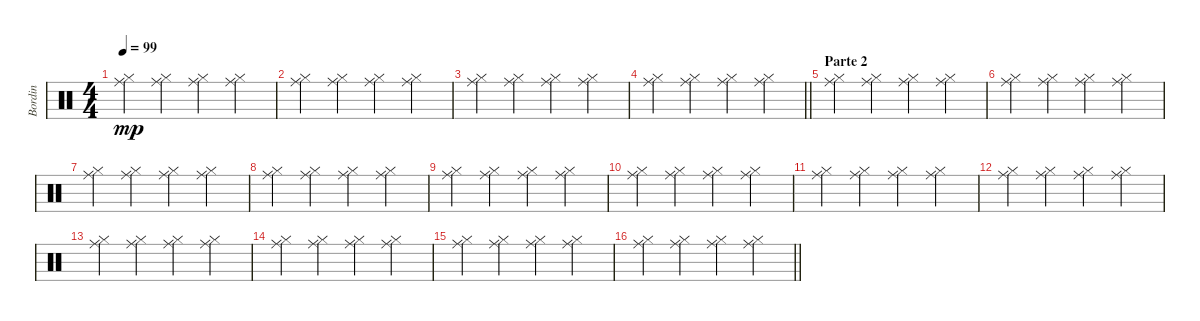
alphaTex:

\track ("Bordin" "Bordin") {instrument percussion}
\staff {score}
\articulation defaults
\ts (4 4)
\tempo 99
\clef neutral
\ks c
("Ride (middle)" "Hi-Hat (closed)").4{dy mp} ("Ride (middle)" "Hi-Hat (closed)").4 ("Ride (middle)" "Hi-Hat (closed)").4 ("Ride (middle)" "Hi-Hat (closed)").4 |
("Ride (middle)" "Hi-Hat (closed)").4 ("Ride (middle)" "Hi-Hat (closed)").4 ("Ride (middle)" "Hi-Hat (closed)").4 ("Ride (middle)" "Hi-Hat (closed)").4 |
("Ride (middle)" "Hi-Hat (closed)").4 ("Ride (middle)" "Hi-Hat (closed)").4 ("Ride (middle)" "Hi-Hat (closed)").4 ("Ride (middle)" "Hi-Hat (closed)").4 |
\barLineRight lightlight
("Ride (middle)" "Hi-Hat (closed)").4 ("Ride (middle)" "Hi-Hat (closed)").4 ("Ride (middle)" "Hi-Hat (closed)").4 ("Ride (middle)" "Hi-Hat (closed)").4 |
\section ("" "Parte 2")
("Ride (middle)" "Hi-Hat (closed)").4 ("Ride (middle)" "Hi-Hat (closed)").4 ("Ride (middle)" "Hi-Hat (closed)").4 ("Ride (middle)" "Hi-Hat (closed)").4 |
("Ride (middle)" "Hi-Hat (closed)").4 ("Ride (middle)" "Hi-Hat (closed)").4 ("Ride (middle)" "Hi-Hat (closed)").4 ("Ride (middle)" "Hi-Hat (closed)").4 |
("Ride (middle)" "Hi-Hat (closed)").4 ("Ride (middle)" "Hi-Hat (closed)").4 ("Ride (middle)" "Hi-Hat (closed)").4 ("Ride (middle)" "Hi-Hat (closed)").4 |
("Ride (middle)" "Hi-Hat (closed)").4 ("Ride (middle)" "Hi-Hat (closed)").4 ("Ride (middle)" "Hi-Hat (closed)").4 ("Ride (middle)" "Hi-Hat (closed)").4 |
("Ride (middle)" "Hi-Hat (closed)").4 ("Ride (middle)" "Hi-Hat (closed)").4 ("Ride (middle)" "Hi-Hat (closed)").4 ("Ride (middle)" "Hi-Hat (closed)").4 |
("Ride (middle)" "Hi-Hat (closed)").4 ("Ride (middle)" "Hi-Hat (closed)").4 ("Ride (middle)" "Hi-Hat (closed)").4 ("Ride (middle)" "Hi-Hat (closed)").4 |
("Ride (middle)" "Hi-Hat (closed)").4 ("Ride (middle)" "Hi-Hat (closed)").4 ("Ride (middle)" "Hi-Hat (closed)").4 ("Ride (middle)" "Hi-Hat (closed)").4 |
("Ride (middle)" "Hi-Hat (closed)").4 ("Ride (middle)" "Hi-Hat (closed)").4 ("Ride (middle)" "Hi-Hat (closed)").4 ("Ride (middle)" "Hi-Hat (closed)").4 |
("Ride (middle)" "Hi-Hat (closed)").4 ("Ride (middle)" "Hi-Hat (closed)").4 ("Ride (middle)" "Hi-Hat (closed)").4 ("Ride (middle)" "Hi-Hat (closed)").4 |
("Ride (middle)" "Hi-Hat (closed)").4 ("Ride (middle)" "Hi-Hat (closed)").4 ("Ride (middle)" "Hi-Hat (closed)").4 ("Ride (middle)" "Hi-Hat (closed)").4 |
("Ride (middle)" "Hi-Hat (closed)").4 ("Ride (middle)" "Hi-Hat (closed)").4 ("Ride (middle)" "Hi-Hat (closed)").4 ("Ride (middle)" "Hi-Hat (closed)").4 |
\barLineRight lightlight
("Ride (middle)" "Hi-Hat (closed)").4 ("Ride (middle)" "Hi-Hat (closed)").4 ("Ride (middle)" "Hi-Hat (closed)").4 ("Ride (middle)" "Hi-Hat (closed)").4
